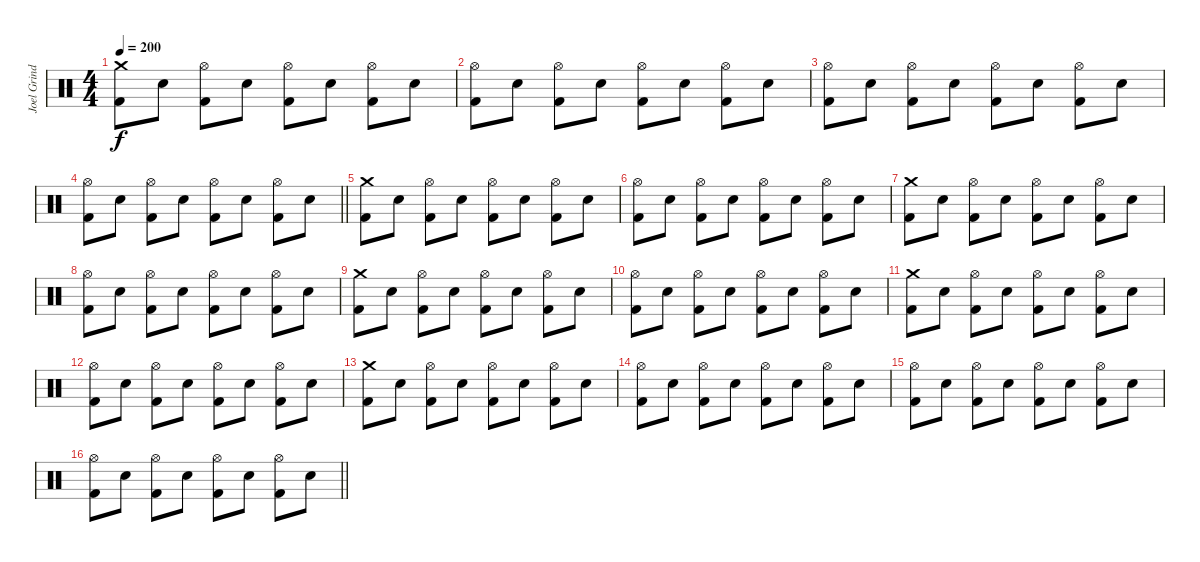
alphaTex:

\track ("Joel Grind (drums)" "Joel Grind") {instrument percussion}
\staff {score}
\articulation defaults
\ts (4 4)
\tempo 200
\clef neutral
\ks c
("Crash medium (hit)" "Kick (hit) 2").8{dy f} "Snare (hit) 2".8 ("Hi-Hat (open)" "Kick (hit) 2").8 "Snare (hit) 2".8 ("Hi-Hat (open)" "Kick (hit) 2").8 "Snare (hit) 2".8 ("Hi-Hat (open)" "Kick (hit) 2").8 "Snare (hit) 2".8 |
("Hi-Hat (open)" "Kick (hit) 2").8 "Snare (hit) 2".8 ("Hi-Hat (open)" "Kick (hit) 2").8 "Snare (hit) 2".8 ("Hi-Hat (open)" "Kick (hit) 2").8 "Snare (hit) 2".8 ("Hi-Hat (open)" "Kick (hit) 2").8 "Snare (hit) 2".8 |
("Hi-Hat (open)" "Kick (hit) 2").8 "Snare (hit) 2".8 ("Hi-Hat (open)" "Kick (hit) 2").8 "Snare (hit) 2".8 ("Hi-Hat (open)" "Kick (hit) 2").8 "Snare (hit) 2".8 ("Hi-Hat (open)" "Kick (hit) 2").8 "Snare (hit) 2".8 |
\barLineRight lightlight
("Hi-Hat (open)" "Kick (hit) 2").8 "Snare (hit) 2".8 ("Hi-Hat (open)" "Kick (hit) 2").8 "Snare (hit) 2".8 ("Hi-Hat (open)" "Kick (hit) 2").8 "Snare (hit) 2".8 ("Hi-Hat (open)" "Kick (hit) 2").8 "Snare (hit) 2".8 |
("Crash medium (hit)" "Kick (hit) 2").8 "Snare (hit) 2".8 ("Hi-Hat (open)" "Kick (hit) 2").8 "Snare (hit) 2".8 ("Hi-Hat (open)" "Kick (hit) 2").8 "Snare (hit) 2".8 ("Hi-Hat (open)" "Kick (hit) 2").8 "Snare (hit) 2".8 |
("Hi-Hat (open)" "Kick (hit) 2").8 "Snare (hit) 2".8 ("Hi-Hat (open)" "Kick (hit) 2").8 "Snare (hit) 2".8 ("Hi-Hat (open)" "Kick (hit) 2").8 "Snare (hit) 2".8 ("Hi-Hat (open)" "Kick (hit) 2").8 "Snare (hit) 2".8 |
("Crash medium (hit)" "Kick (hit) 2").8 "Snare (hit) 2".8 ("Hi-Hat (open)" "Kick (hit) 2").8 "Snare (hit) 2".8 ("Hi-Hat (open)" "Kick (hit) 2").8 "Snare (hit) 2".8 ("Hi-Hat (open)" "Kick (hit) 2").8 "Snare (hit) 2".8 |
("Hi-Hat (open)" "Kick (hit) 2").8 "Snare (hit) 2".8 ("Hi-Hat (open)" "Kick (hit) 2").8 "Snare (hit) 2".8 ("Hi-Hat (open)" "Kick (hit) 2").8 "Snare (hit) 2".8 ("Hi-Hat (open)" "Kick (hit) 2").8 "Snare (hit) 2".8 |
("Crash medium (hit)" "Kick (hit) 2").8 "Snare (hit) 2".8 ("Hi-Hat (open)" "Kick (hit) 2").8 "Snare (hit) 2".8 ("Hi-Hat (open)" "Kick (hit) 2").8 "Snare (hit) 2".8 ("Hi-Hat (open)" "Kick (hit) 2").8 "Snare (hit) 2".8 |
("Hi-Hat (open)" "Kick (hit) 2").8 "Snare (hit) 2".8 ("Hi-Hat (open)" "Kick (hit) 2").8 "Snare (hit) 2".8 ("Hi-Hat (open)" "Kick (hit) 2").8 "Snare (hit) 2".8 ("Hi-Hat (open)" "Kick (hit) 2").8 "Snare (hit) 2".8 |
("Crash medium (hit)" "Kick (hit) 2").8 "Snare (hit) 2".8 ("Hi-Hat (open)" "Kick (hit) 2").8 "Snare (hit) 2".8 ("Hi-Hat (open)" "Kick (hit) 2").8 "Snare (hit) 2".8 ("Hi-Hat (open)" "Kick (hit) 2").8 "Snare (hit) 2".8 |
("Hi-Hat (open)" "Kick (hit) 2").8 "Snare (hit) 2".8 ("Hi-Hat (open)" "Kick (hit) 2").8 "Snare (hit) 2".8 ("Hi-Hat (open)" "Kick (hit) 2").8 "Snare (hit) 2".8 ("Hi-Hat (open)" "Kick (hit) 2").8 "Snare (hit) 2".8 |
("Crash medium (hit)" "Kick (hit) 2").8 "Snare (hit) 2".8 ("Hi-Hat (open)" "Kick (hit) 2").8 "Snare (hit) 2".8 ("Hi-Hat (open)" "Kick (hit) 2").8 "Snare (hit) 2".8 ("Hi-Hat (open)" "Kick (hit) 2").8 "Snare (hit) 2".8 |
("Hi-Hat (open)" "Kick (hit) 2").8 "Snare (hit) 2".8 ("Hi-Hat (open)" "Kick (hit) 2").8 "Snare (hit) 2".8 ("Hi-Hat (open)" "Kick (hit) 2").8 "Snare (hit) 2".8 ("Hi-Hat (open)" "Kick (hit) 2").8 "Snare (hit) 2".8 |
("Hi-Hat (open)" "Kick (hit) 2").8 "Snare (hit) 2".8 ("Hi-Hat (open)" "Kick (hit) 2").8 "Snare (hit) 2".8 ("Hi-Hat (open)" "Kick (hit) 2").8 "Snare (hit) 2".8 ("Hi-Hat (open)" "Kick (hit) 2").8 "Snare (hit) 2".8 |
\barLineRight lightlight
("Hi-Hat (open)" "Kick (hit) 2").8 "Snare (hit) 2".8 ("Hi-Hat (open)" "Kick (hit) 2").8 "Snare (hit) 2".8 ("Hi-Hat (open)" "Kick (hit) 2").8 "Snare (hit) 2".8 ("Hi-Hat (open)" "Kick (hit) 2").8 "Snare (hit) 2".8
